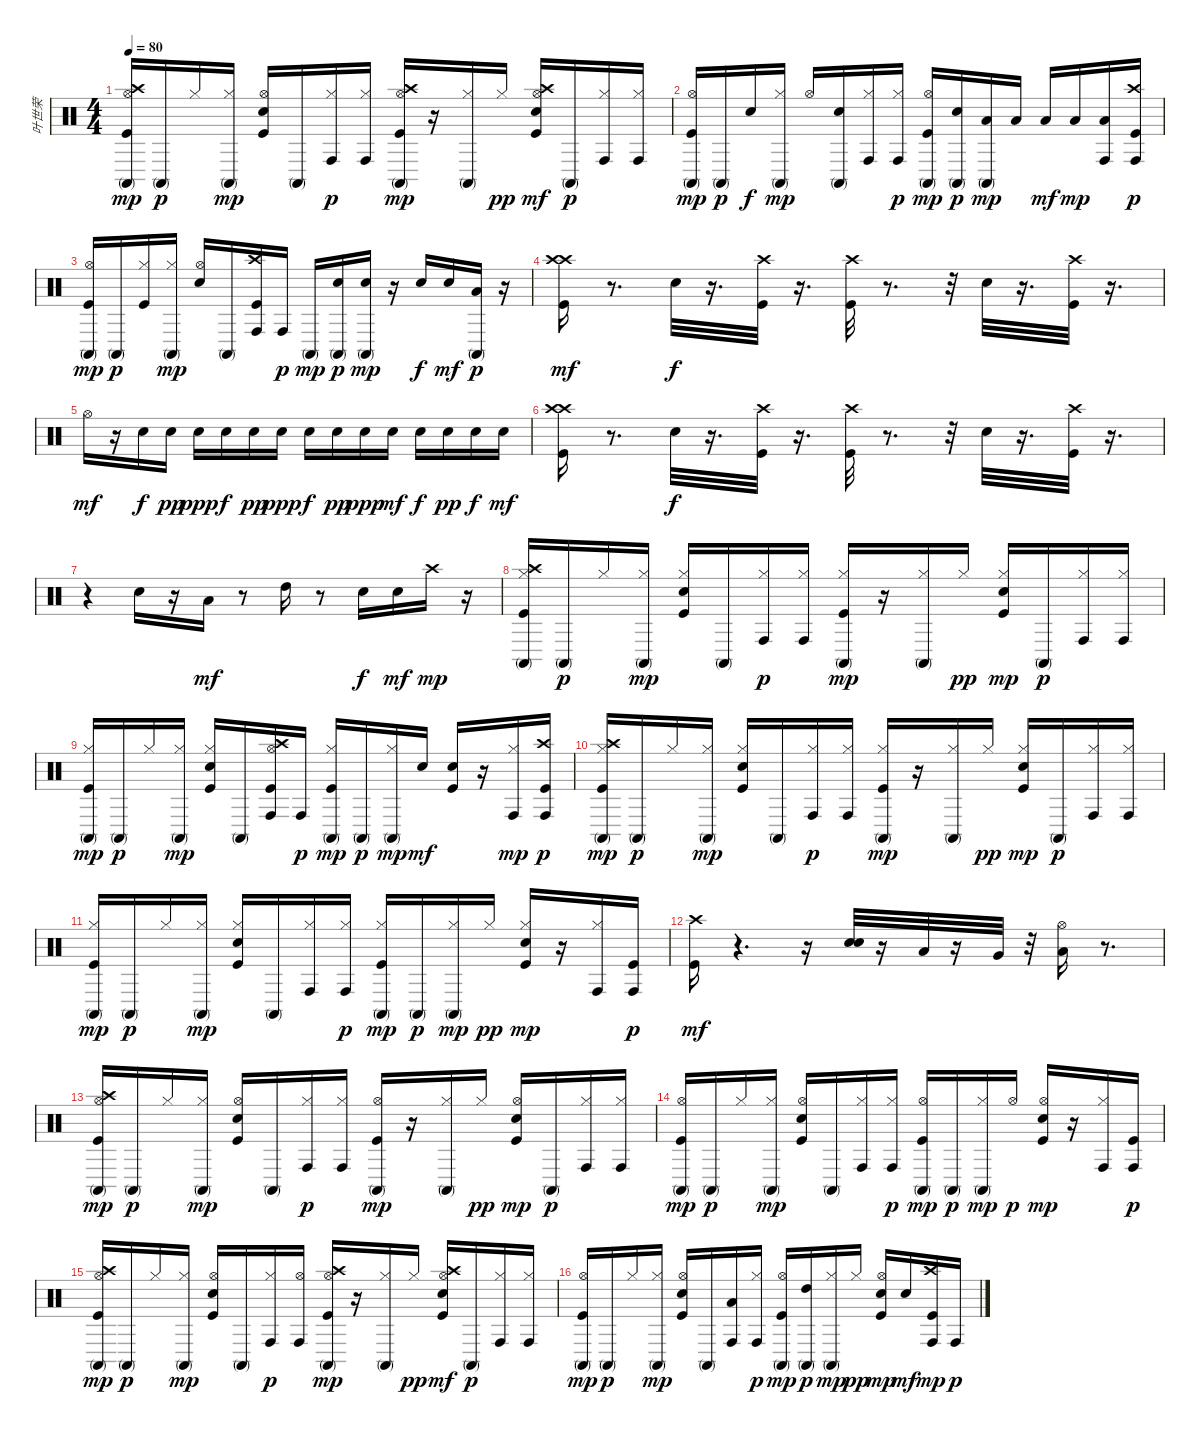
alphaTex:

\track ("叶世荣" "叶世荣") {instrument percussion}
\staff {score}
\articulation defaults
\ts (4 4)
\tempo 80
\clef neutral
\ks c
("Kick (hit)" "Hi-Hat (open)" "Crash high (hit)" "Conga high (mute)").16{dy mp} "Conga high (mute)".16{dy p} "Hi-Hat (closed)".16 ("Hi-Hat (closed)" "Conga high (mute)").16{dy mp} ("Kick (hit)" "Snare (hit) 2" "Hi-Hat (open)").16 "Conga high (mute)".16 ("Hi-Hat (closed)" "Conga high (hit)").16{dy p} ("Hi-Hat (closed)" "Conga high (hit)").16 ("Kick (hit)" "Hi-Hat (open)" "Crash high (hit)" "Conga high (mute)").16{dy mp} r.16 ("Hi-Hat (closed)" "Conga high (mute)").16 "Hi-Hat (closed)".16{dy pp} ("Kick (hit)" "Snare (hit) 2" "Hi-Hat (open)" "Crash high (hit)").16{dy mf} "Conga high (mute)".16{dy p} ("Hi-Hat (closed)" "Conga high (hit)").16 ("Hi-Hat (closed)" "Conga high (hit)").16 |
("Kick (hit)" "Hi-Hat (open)" "Conga high (mute)").16{dy mp} "Conga high (mute)".16{dy p} "Snare (hit) 2".16{dy f} ("Hi-Hat (closed)" "Conga high (mute)").16{dy mp} "Hi-Hat (open)".16 ("Snare (hit) 2" "Conga high (mute)").16 ("Hi-Hat (closed)" "Conga high (hit)").16 ("Hi-Hat (closed)" "Conga high (hit)").16{dy p} ("Kick (hit)" "Hi-Hat (open)" "Conga high (mute)").16{dy mp} ("Snare (hit) 2" "Conga high (mute)").16{dy p} ("Low Tom (hit)" "Conga high (mute)").16{dy mp} "Low Tom (hit)".16 "Low Tom (hit)".16{dy mf} "Low Tom (hit)".16{dy mp} ("Low Floor Tom (hit)" "Conga high (hit)").16 ("Kick (hit)" "Crash high (hit)" "Conga high (hit)").16{dy p} |
("Kick (hit)" "Hi-Hat (open)" "Conga high (mute)").16{dy mp} "Conga high (mute)".16{dy p} ("Kick (hit)" "Hi-Hat (closed)").16 ("Hi-Hat (closed)" "Conga high (mute)").16{dy mp} ("Snare (hit) 2" "Hi-Hat (open)").16 "Conga high (mute)".16 ("Kick (hit)" "Crash high (hit)" "Conga high (hit)").16 "Conga high (hit)".16{dy p} "Conga high (mute)".16{dy mp} ("Snare (hit) 2" "Conga high (mute)").16{dy p} ("Snare (hit) 2" "Conga high (mute)").16{dy mp} r.16 "Snare (hit) 2".16{dy f} "Snare (hit) 2".16{dy mf} ("Low Tom (hit)" "Conga high (mute)").16{dy p} r.16 |
("Kick (hit)" "Crash high (hit)" "Crash high (hit)").16{dy mf} r.8{d} "Snare (hit) 2".32{dy f} r.16{d} ("Kick (hit)" "Crash high (hit)").32 r.16{d} ("Kick (hit)" "Crash high (hit)").32 r.8{d} r.32 "Snare (hit) 2".32 r.16{d} ("Kick (hit)" "Crash high (hit)").32 r.16{d} |
"Hi-Hat (open)".16{dy mf} r.16 "Snare (hit) 2".16{dy f} "Snare (hit) 2".16{dy pp} "Snare (hit) 2".16{dy ppp} "Snare (hit) 2".16{dy f} "Snare (hit) 2".16{dy pp} "Snare (hit) 2".16{dy ppp} "Snare (hit) 2".16{dy f} "Snare (hit) 2".16{dy pp} "Snare (hit) 2".16{dy ppp} "Snare (hit) 2".16{dy mf} "Snare (hit) 2".16{dy f} "Snare (hit) 2".16{dy pp} "Snare (hit) 2".16{dy f} "Snare (hit) 2".16{dy mf} |
("Kick (hit)" "Crash high (hit)" "Crash high (hit)").16 r.8{d} "Snare (hit) 2".32{dy f} r.16{d} ("Kick (hit)" "Crash high (hit)").32 r.16{d} ("Kick (hit)" "Crash high (hit)").32 r.8{d} r.32 "Snare (hit) 2".32 r.16{d} ("Kick (hit)" "Crash high (hit)").32 r.16{d} |
r.4 "Snare (hit) 2".16 r.16 "Low Tom (hit)".16{dy mf} r.8 "High Tom (hit)".16 r.8 "Snare (hit) 2".16{dy f} "Snare (hit) 2".16{dy mf} "Crash high (hit)".16{dy mp} r.16 |
("Kick (hit)" "Hi-Hat (closed)" "Crash high (hit)" "Conga high (mute)").16 "Conga high (mute)".16{dy p} "Hi-Hat (closed)".16 ("Hi-Hat (closed)" "Conga high (mute)").16{dy mp} ("Kick (hit)" "Snare (hit) 2" "Hi-Hat (closed)").16 "Conga high (mute)".16 ("Hi-Hat (closed)" "Conga high (hit)").16{dy p} ("Hi-Hat (closed)" "Conga high (hit)").16 ("Kick (hit)" "Hi-Hat (closed)" "Conga high (mute)").16{dy mp} r.16 ("Hi-Hat (closed)" "Conga high (mute)").16 "Hi-Hat (closed)".16{dy pp} ("Kick (hit)" "Snare (hit) 2" "Hi-Hat (closed)").16{dy mp} "Conga high (mute)".16{dy p} ("Hi-Hat (closed)" "Conga high (hit)").16 ("Hi-Hat (closed)" "Conga high (hit)").16 |
("Kick (hit)" "Hi-Hat (closed)" "Conga high (mute)").16{dy mp} "Conga high (mute)".16{dy p} "Hi-Hat (closed)".16 ("Hi-Hat (closed)" "Conga high (mute)").16{dy mp} ("Kick (hit)" "Snare (hit) 2" "Hi-Hat (closed)").16 "Conga high (mute)".16 ("Kick (hit)" "Hi-Hat (open)" "Crash high (hit)" "Conga high (hit)").16 "Conga high (hit)".16{dy p} ("Kick (hit)" "Hi-Hat (closed)" "Conga high (mute)").16{dy mp} "Conga high (mute)".16{dy p} ("Hi-Hat (closed)" "Conga high (mute)").16{dy mp} "Snare (hit) 2".16{dy mf} ("Kick (hit)" "Snare (hit) 2").16 r.16 ("Hi-Hat (closed)" "Conga high (hit)").16{dy mp} ("Kick (hit)" "Crash high (hit)" "Conga high (hit)").16{dy p} |
("Kick (hit)" "Hi-Hat (closed)" "Crash high (hit)" "Conga high (mute)").16{dy mp} "Conga high (mute)".16{dy p} "Hi-Hat (closed)".16 ("Hi-Hat (closed)" "Conga high (mute)").16{dy mp} ("Kick (hit)" "Snare (hit) 2" "Hi-Hat (closed)").16 "Conga high (mute)".16 ("Hi-Hat (closed)" "Conga high (hit)").16{dy p} ("Hi-Hat (closed)" "Conga high (hit)").16 ("Kick (hit)" "Hi-Hat (closed)" "Conga high (mute)").16{dy mp} r.16 ("Hi-Hat (closed)" "Conga high (mute)").16 "Hi-Hat (closed)".16{dy pp} ("Kick (hit)" "Snare (hit) 2" "Hi-Hat (closed)").16{dy mp} "Conga high (mute)".16{dy p} ("Hi-Hat (closed)" "Conga high (hit)").16 ("Hi-Hat (closed)" "Conga high (hit)").16 |
("Kick (hit)" "Hi-Hat (closed)" "Conga high (mute)").16{dy mp} "Conga high (mute)".16{dy p} "Hi-Hat (closed)".16 ("Hi-Hat (closed)" "Conga high (mute)").16{dy mp} ("Kick (hit)" "Snare (hit) 2" "Hi-Hat (closed)").16 "Conga high (mute)".16 ("Hi-Hat (closed)" "Conga high (hit)").16 ("Hi-Hat (closed)" "Conga high (hit)").16{dy p} ("Kick (hit)" "Hi-Hat (closed)" "Conga high (mute)").16{dy mp} "Conga high (mute)".16{dy p} ("Hi-Hat (closed)" "Conga high (mute)").16{dy mp} "Hi-Hat (closed)".16{dy pp} ("Kick (hit)" "Snare (hit) 2" "Hi-Hat (closed)").16{dy mp} r.16 ("Hi-Hat (closed)" "Conga high (hit)").16 ("Kick (hit)" "Conga high (hit)").16{dy p} |
("Kick (hit)" "Crash high (hit)").16{dy mf} r.4{d} r.16 ("Snare (hit) 2" "Snare (hit) 2").32 r.16 "Low Tom (hit)".32 r.16 "Very Low Tom (hit)".32 r.32 ("Hi-Hat (open)" "Low Floor Tom (hit)").16 r.8{d} |
("Kick (hit)" "Hi-Hat (open)" "Crash high (hit)" "Conga high (mute)").16{dy mp} "Conga high (mute)".16{dy p} "Hi-Hat (closed)".16 ("Hi-Hat (closed)" "Conga high (mute)").16{dy mp} ("Kick (hit)" "Snare (hit) 2" "Hi-Hat (open)").16 "Conga high (mute)".16 ("Hi-Hat (closed)" "Conga high (hit)").16{dy p} ("Hi-Hat (closed)" "Conga high (hit)").16 ("Kick (hit)" "Hi-Hat (open)" "Conga high (mute)").16{dy mp} r.16 ("Hi-Hat (closed)" "Conga high (mute)").16 "Hi-Hat (closed)".16{dy pp} ("Kick (hit)" "Snare (hit) 2" "Hi-Hat (open)").16{dy mp} "Conga high (mute)".16{dy p} ("Hi-Hat (closed)" "Conga high (hit)").16 ("Hi-Hat (closed)" "Conga high (hit)").16 |
("Kick (hit)" "Hi-Hat (open)" "Conga high (mute)").16{dy mp} "Conga high (mute)".16{dy p} "Hi-Hat (closed)".16 ("Hi-Hat (closed)" "Conga high (mute)").16{dy mp} ("Kick (hit)" "Snare (hit) 2" "Hi-Hat (open)").16 "Conga high (mute)".16 ("Hi-Hat (closed)" "Conga high (hit)").16 ("Hi-Hat (closed)" "Conga high (hit)").16{dy p} ("Kick (hit)" "Hi-Hat (open)" "Conga high (mute)").16{dy mp} "Conga high (mute)".16{dy p} ("Hi-Hat (closed)" "Conga high (mute)").16{dy mp} "Hi-Hat (open)".16{dy p} ("Kick (hit)" "Snare (hit) 2" "Hi-Hat (open)").16{dy mp} r.16 ("Hi-Hat (closed)" "Conga high (hit)").16 ("Kick (hit)" "Conga high (hit)").16{dy p} |
("Kick (hit)" "Hi-Hat (open)" "Crash high (hit)" "Conga high (mute)").16{dy mp} "Conga high (mute)".16{dy p} "Hi-Hat (closed)".16 ("Hi-Hat (closed)" "Conga high (mute)").16{dy mp} ("Kick (hit)" "Snare (hit) 2" "Hi-Hat (open)").16 "Conga high (mute)".16 ("Hi-Hat (closed)" "Conga high (hit)").16{dy p} ("Hi-Hat (open)" "Conga high (hit)").16 ("Kick (hit)" "Hi-Hat (open)" "Crash high (hit)" "Conga high (mute)").16{dy mp} r.16 ("Hi-Hat (closed)" "Conga high (mute)").16 "Hi-Hat (closed)".16{dy pp} ("Kick (hit)" "Snare (hit) 2" "Hi-Hat (open)" "Crash high (hit)").16{dy mf} "Conga high (mute)".16{dy p} ("Hi-Hat (closed)" "Conga high (hit)").16 ("Hi-Hat (closed)" "Conga high (hit)").16 |
("Kick (hit)" "Hi-Hat (open)" "Conga high (mute)").16{dy mp} "Conga high (mute)".16{dy p} "Hi-Hat (closed)".16 ("Hi-Hat (closed)" "Conga high (mute)").16{dy mp} ("Kick (hit)" "Snare (hit) 2" "Hi-Hat (open)").16 "Conga high (mute)".16 ("Low Tom (hit)" "Conga high (hit)").16 ("Hi-Hat (closed)" "Conga high (hit)").16{dy p} ("Kick (hit)" "Hi-Hat (open)" "Conga high (mute)").16{dy mp} ("High Tom (hit)" "Conga high (mute)").16{dy p} ("Hi-Hat (closed)" "Conga high (mute)").16{dy mp} "Hi-Hat (closed)".16{dy pp} ("Kick (hit)" "Snare (hit) 2" "Hi-Hat (open)").16{dy mp} "Snare (hit) 2".16{dy mf} ("Kick (hit)" "Crash high (hit)" "Conga high (hit)").16{dy mp} "Conga high (hit)".16{dy p}
